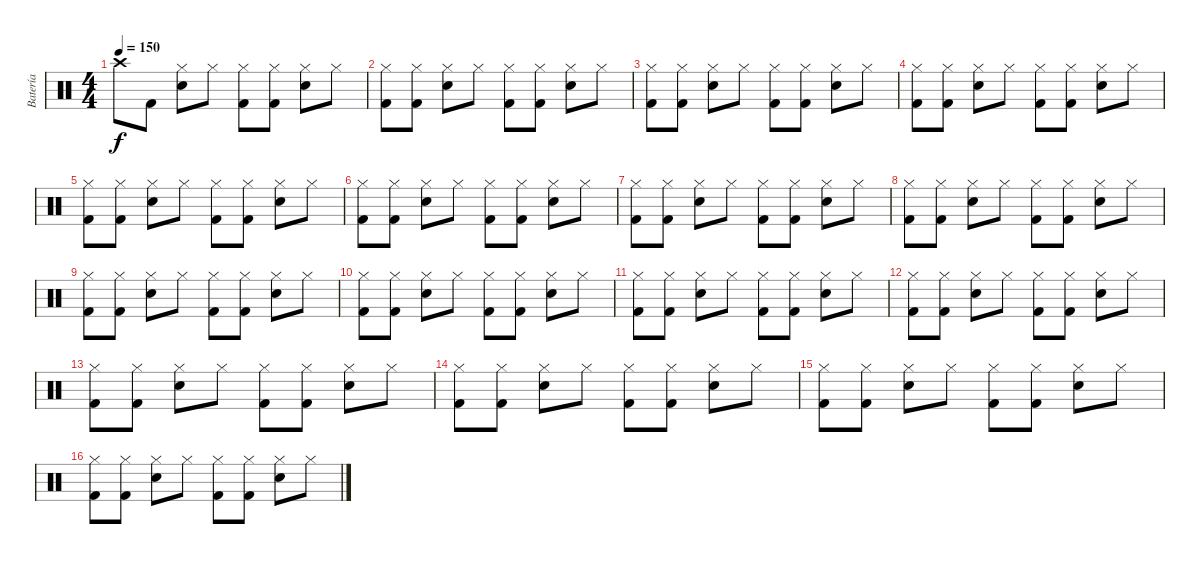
\track ("Batería" "Batería") {instrument percussion}
\staff {score}
\articulation defaults
\ts (4 4)
\tempo 150
\clef neutral
\ks c "Crash high (hit)".8{dy f} "Kick (hit) 2".8
("Hi-Hat (closed)" "Electric Snare (hit)").8 "Hi-Hat (closed)".8 ("Hi-Hat (closed)" "Kick (hit) 2").8 ("Hi-Hat (closed)" "Kick (hit) 2").8 ("Hi-Hat (closed)" "Electric Snare (hit)").8 "Hi-Hat (closed)".8 |
("Hi-Hat (closed)" "Kick (hit) 2").8 ("Hi-Hat (closed)" "Kick (hit) 2").8 ("Hi-Hat (closed)" "Electric Snare (hit)").8 "Hi-Hat (closed)".8 ("Hi-Hat (closed)" "Kick (hit) 2").8 ("Hi-Hat (closed)" "Kick (hit) 2").8 ("Hi-Hat (closed)" "Electric Snare (hit)").8 "Hi-Hat (closed)".8 |
("Hi-Hat (closed)" "Kick (hit) 2").8 ("Hi-Hat (closed)" "Kick (hit) 2").8 ("Hi-Hat (closed)" "Electric Snare (hit)").8 "Hi-Hat (closed)".8 ("Hi-Hat (closed)" "Kick (hit) 2").8 ("Hi-Hat (closed)" "Kick (hit) 2").8 ("Hi-Hat (closed)" "Electric Snare (hit)").8 "Hi-Hat (closed)".8 |
("Hi-Hat (closed)" "Kick (hit) 2").8 ("Hi-Hat (closed)" "Kick (hit) 2").8 ("Hi-Hat (closed)" "Electric Snare (hit)").8 "Hi-Hat (closed)".8 ("Hi-Hat (closed)" "Kick (hit) 2").8 ("Hi-Hat (closed)" "Kick (hit) 2").8 ("Hi-Hat (closed)" "Electric Snare (hit)").8 "Hi-Hat (closed)".8 |
("Hi-Hat (closed)" "Kick (hit) 2").8 ("Hi-Hat (closed)" "Kick (hit) 2").8 ("Hi-Hat (closed)" "Electric Snare (hit)").8 "Hi-Hat (closed)".8 ("Hi-Hat (closed)" "Kick (hit) 2").8 ("Hi-Hat (closed)" "Kick (hit) 2").8 ("Hi-Hat (closed)" "Electric Snare (hit)").8 "Hi-Hat (closed)".8 |
("Hi-Hat (closed)" "Kick (hit) 2").8 ("Hi-Hat (closed)" "Kick (hit) 2").8 ("Hi-Hat (closed)" "Electric Snare (hit)").8 "Hi-Hat (closed)".8 ("Hi-Hat (closed)" "Kick (hit) 2").8 ("Hi-Hat (closed)" "Kick (hit) 2").8 ("Hi-Hat (closed)" "Electric Snare (hit)").8 "Hi-Hat (closed)".8 |
("Hi-Hat (closed)" "Kick (hit) 2").8 ("Hi-Hat (closed)" "Kick (hit) 2").8 ("Hi-Hat (closed)" "Electric Snare (hit)").8 "Hi-Hat (closed)".8 ("Hi-Hat (closed)" "Kick (hit) 2").8 ("Hi-Hat (closed)" "Kick (hit) 2").8 ("Hi-Hat (closed)" "Electric Snare (hit)").8 "Hi-Hat (closed)".8 |
("Hi-Hat (closed)" "Kick (hit) 2").8 ("Hi-Hat (closed)" "Kick (hit) 2").8 ("Hi-Hat (closed)" "Electric Snare (hit)").8 "Hi-Hat (closed)".8 ("Hi-Hat (closed)" "Kick (hit) 2").8 ("Hi-Hat (closed)" "Kick (hit) 2").8 ("Hi-Hat (closed)" "Electric Snare (hit)").8 "Hi-Hat (closed)".8 |
("Hi-Hat (closed)" "Kick (hit) 2").8 ("Hi-Hat (closed)" "Kick (hit) 2").8 ("Hi-Hat (closed)" "Electric Snare (hit)").8 "Hi-Hat (closed)".8 ("Hi-Hat (closed)" "Kick (hit) 2").8 ("Hi-Hat (closed)" "Kick (hit) 2").8 ("Hi-Hat (closed)" "Electric Snare (hit)").8 "Hi-Hat (closed)".8 |
("Hi-Hat (closed)" "Kick (hit) 2").8 ("Hi-Hat (closed)" "Kick (hit) 2").8 ("Hi-Hat (closed)" "Electric Snare (hit)").8 "Hi-Hat (closed)".8 ("Hi-Hat (closed)" "Kick (hit) 2").8 ("Hi-Hat (closed)" "Kick (hit) 2").8 ("Hi-Hat (closed)" "Electric Snare (hit)").8 "Hi-Hat (closed)".8 |
("Hi-Hat (closed)" "Kick (hit) 2").8 ("Hi-Hat (closed)" "Kick (hit) 2").8 ("Hi-Hat (closed)" "Electric Snare (hit)").8 "Hi-Hat (closed)".8 ("Hi-Hat (closed)" "Kick (hit) 2").8 ("Hi-Hat (closed)" "Kick (hit) 2").8 ("Hi-Hat (closed)" "Electric Snare (hit)").8 "Hi-Hat (closed)".8 |
("Hi-Hat (closed)" "Kick (hit) 2").8 ("Hi-Hat (closed)" "Kick (hit) 2").8 ("Hi-Hat (closed)" "Electric Snare (hit)").8 "Hi-Hat (closed)".8 ("Hi-Hat (closed)" "Kick (hit) 2").8 ("Hi-Hat (closed)" "Kick (hit) 2").8 ("Hi-Hat (closed)" "Electric Snare (hit)").8 "Hi-Hat (closed)".8 |
("Hi-Hat (closed)" "Kick (hit) 2").8 ("Hi-Hat (closed)" "Kick (hit) 2").8 ("Hi-Hat (closed)" "Electric Snare (hit)").8 "Hi-Hat (closed)".8 ("Hi-Hat (closed)" "Kick (hit) 2").8 ("Hi-Hat (closed)" "Kick (hit) 2").8 ("Hi-Hat (closed)" "Electric Snare (hit)").8 "Hi-Hat (closed)".8 |
("Hi-Hat (closed)" "Kick (hit) 2").8 ("Hi-Hat (closed)" "Kick (hit) 2").8 ("Hi-Hat (closed)" "Electric Snare (hit)").8 "Hi-Hat (closed)".8 ("Hi-Hat (closed)" "Kick (hit) 2").8 ("Hi-Hat (closed)" "Kick (hit) 2").8 ("Hi-Hat (closed)" "Electric Snare (hit)").8 "Hi-Hat (closed)".8 |
("Hi-Hat (closed)" "Kick (hit) 2").8 ("Hi-Hat (closed)" "Kick (hit) 2").8 ("Hi-Hat (closed)" "Electric Snare (hit)").8 "Hi-Hat (closed)".8 ("Hi-Hat (closed)" "Kick (hit) 2").8 ("Hi-Hat (closed)" "Kick (hit) 2").8 ("Hi-Hat (closed)" "Electric Snare (hit)").8 "Hi-Hat (closed)".8 |
("Hi-Hat (closed)" "Kick (hit) 2").8 ("Hi-Hat (closed)" "Kick (hit) 2").8 ("Hi-Hat (closed)" "Electric Snare (hit)").8 "Hi-Hat (closed)".8 ("Hi-Hat (closed)" "Kick (hit) 2").8 ("Hi-Hat (closed)" "Kick (hit) 2").8 ("Hi-Hat (closed)" "Electric Snare (hit)").8 "Hi-Hat (closed)".8
